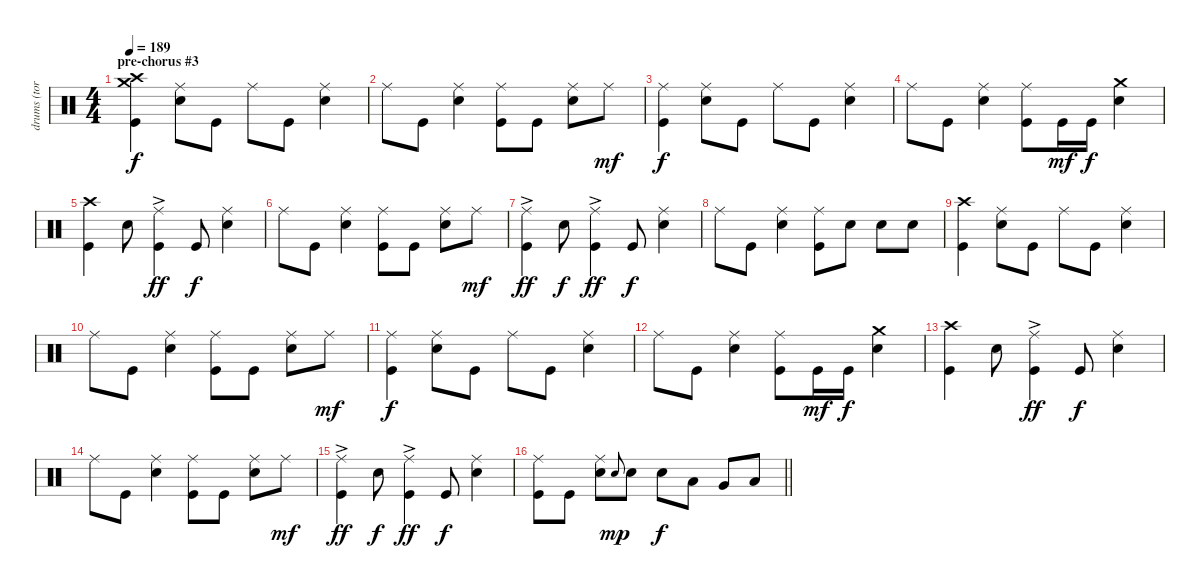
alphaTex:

\track ("drums (tora)" "drums (tor") {instrument percussion}
\staff {score}
\articulation defaults
\ts (4 4)
\section ("" "pre-chorus #3")
\tempo 189
\clef neutral
\ks c
("Crash high (hit)" "Crash medium (hit)" "Kick (hit)").4{dy f} ("Ride (middle)" "Snare (hit) 2").8 "Kick (hit)".8 "Ride (middle)".8 "Kick (hit)".8 ("Ride (middle)" "Snare (hit) 2").4 |
"Ride (middle)".8 "Kick (hit)".8 ("Ride (middle)" "Snare (hit) 2").4 ("Ride (middle)" "Kick (hit)").8 "Kick (hit)".8 ("Ride (middle)" "Snare (hit) 2").8 "Ride (middle)".8{dy mf} |
("Ride (middle)" "Kick (hit)").4{dy f} ("Ride (middle)" "Snare (hit) 2").8 "Kick (hit)".8 "Ride (middle)".8 "Kick (hit)".8 ("Ride (middle)" "Snare (hit) 2").4 |
"Ride (middle)".8 "Kick (hit)".8 ("Ride (middle)" "Snare (hit) 2").4 ("Ride (middle)" "Kick (hit)").8 "Kick (hit)".16{dy mf} "Kick (hit)".16{dy f} ("Crash medium (hit)" "Snare (hit) 2").4 |
("Crash high (hit)" "Kick (hit)").4 "Snare (hit) 2".8 ("Ride (middle)"{ac} "Kick (hit)").4{dy ff} "Kick (hit)".8{dy f} ("Ride (middle)" "Snare (hit) 2").4 |
"Ride (middle)".8 "Kick (hit)".8 ("Ride (middle)" "Snare (hit) 2").4 ("Ride (middle)" "Kick (hit)").8 "Kick (hit)".8 ("Ride (middle)" "Snare (hit) 2").8 "Ride (middle)".8{dy mf} |
("Ride (middle)"{ac} "Kick (hit)").4{dy ff} "Snare (hit) 2".8{dy f} ("Ride (middle)"{ac} "Kick (hit)").4{dy ff} "Kick (hit)".8{dy f} ("Ride (middle)" "Snare (hit) 2").4 |
"Ride (middle)".8 "Kick (hit)".8 ("Ride (middle)" "Snare (hit) 2").4 ("Ride (middle)" "Kick (hit)").8 "Snare (hit) 2".8 "Snare (hit) 2".8 "Snare (hit) 2".8 |
("Crash high (hit)" "Kick (hit)").4 ("Ride (middle)" "Snare (hit) 2").8 "Kick (hit)".8 "Ride (middle)".8 "Kick (hit)".8 ("Ride (middle)" "Snare (hit) 2").4 |
"Ride (middle)".8 "Kick (hit)".8 ("Ride (middle)" "Snare (hit) 2").4 ("Ride (middle)" "Kick (hit)").8 "Kick (hit)".8 ("Ride (middle)" "Snare (hit) 2").8 "Ride (middle)".8{dy mf} |
("Ride (middle)" "Kick (hit)").4{dy f} ("Ride (middle)" "Snare (hit) 2").8 "Kick (hit)".8 "Ride (middle)".8 "Kick (hit)".8 ("Ride (middle)" "Snare (hit) 2").4 |
"Ride (middle)".8 "Kick (hit)".8 ("Ride (middle)" "Snare (hit) 2").4 ("Ride (middle)" "Kick (hit)").8 "Kick (hit)".16{dy mf} "Kick (hit)".16{dy f} ("Crash medium (hit)" "Snare (hit) 2").4 |
("Crash high (hit)" "Kick (hit)").4 "Snare (hit) 2".8 ("Ride (middle)"{ac} "Kick (hit)").4{dy ff} "Kick (hit)".8{dy f} ("Ride (middle)" "Snare (hit) 2").4 |
"Ride (middle)".8 "Kick (hit)".8 ("Ride (middle)" "Snare (hit) 2").4 ("Ride (middle)" "Kick (hit)").8 "Kick (hit)".8 ("Ride (middle)" "Snare (hit) 2").8 "Ride (middle)".8{dy mf} |
("Ride (middle)"{ac} "Kick (hit)").4{dy ff} "Snare (hit) 2".8{dy f} ("Ride (middle)"{ac} "Kick (hit)").4{dy ff} "Kick (hit)".8{dy f} ("Ride (middle)" "Snare (hit) 2").4 |
\barLineRight lightlight
("Ride (middle)" "Kick (hit)").8 "Kick (hit)".8 ("Ride (middle)" "Snare (hit) 2").8 "Snare (hit) 2".8{gr onbeat dy mp} "Snare (hit) 2".8 "Snare (hit) 2".8{dy f} "Low Tom (hit)".8 "Very Low Tom (hit)".8 "Low Floor Tom (hit)".8
